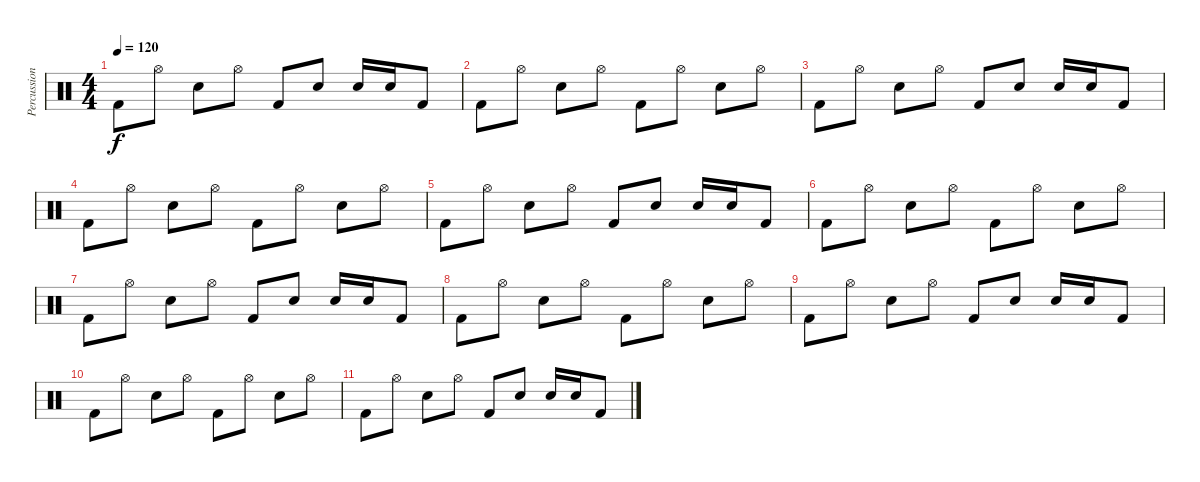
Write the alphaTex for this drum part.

\track ("Percussion" "Percussion") {instrument percussion}
\staff {score}
\articulation defaults
\ts (4 4)
\tempo 120
\clef neutral
\ks c "Kick (hit) 2".8{dy f} "Hi-Hat (open)".8 "Snare (hit) 2".8 "Hi-Hat (open)".8 "Kick (hit) 2".8 "Snare (hit) 2".8 "Snare (hit) 2".16 "Snare (hit) 2".16 "Kick (hit) 2".8
|
"Kick (hit) 2".8 "Hi-Hat (open)".8 "Snare (hit) 2".8 "Hi-Hat (open)".8 "Kick (hit) 2".8 "Hi-Hat (open)".8 "Snare (hit) 2".8 "Hi-Hat (open)".8 |
"Kick (hit) 2".8 "Hi-Hat (open)".8 "Snare (hit) 2".8 "Hi-Hat (open)".8 "Kick (hit) 2".8 "Snare (hit) 2".8 "Snare (hit) 2".16 "Snare (hit) 2".16 "Kick (hit) 2".8 |
"Kick (hit) 2".8 "Hi-Hat (open)".8 "Snare (hit) 2".8 "Hi-Hat (open)".8 "Kick (hit) 2".8 "Hi-Hat (open)".8 "Snare (hit) 2".8 "Hi-Hat (open)".8 |
"Kick (hit) 2".8 "Hi-Hat (open)".8 "Snare (hit) 2".8 "Hi-Hat (open)".8 "Kick (hit) 2".8 "Snare (hit) 2".8 "Snare (hit) 2".16 "Snare (hit) 2".16 "Kick (hit) 2".8 |
"Kick (hit) 2".8 "Hi-Hat (open)".8 "Snare (hit) 2".8 "Hi-Hat (open)".8 "Kick (hit) 2".8 "Hi-Hat (open)".8 "Snare (hit) 2".8 "Hi-Hat (open)".8 |
"Kick (hit) 2".8 "Hi-Hat (open)".8 "Snare (hit) 2".8 "Hi-Hat (open)".8 "Kick (hit) 2".8 "Snare (hit) 2".8 "Snare (hit) 2".16 "Snare (hit) 2".16 "Kick (hit) 2".8 |
"Kick (hit) 2".8 "Hi-Hat (open)".8 "Snare (hit) 2".8 "Hi-Hat (open)".8 "Kick (hit) 2".8 "Hi-Hat (open)".8 "Snare (hit) 2".8 "Hi-Hat (open)".8 |
"Kick (hit) 2".8 "Hi-Hat (open)".8 "Snare (hit) 2".8 "Hi-Hat (open)".8 "Kick (hit) 2".8 "Snare (hit) 2".8 "Snare (hit) 2".16 "Snare (hit) 2".16 "Kick (hit) 2".8 |
"Kick (hit) 2".8 "Hi-Hat (open)".8 "Snare (hit) 2".8 "Hi-Hat (open)".8 "Kick (hit) 2".8 "Hi-Hat (open)".8 "Snare (hit) 2".8 "Hi-Hat (open)".8 |
"Kick (hit) 2".8 "Hi-Hat (open)".8 "Snare (hit) 2".8 "Hi-Hat (open)".8 "Kick (hit) 2".8 "Snare (hit) 2".8 "Snare (hit) 2".16 "Snare (hit) 2".16 "Kick (hit) 2".8
